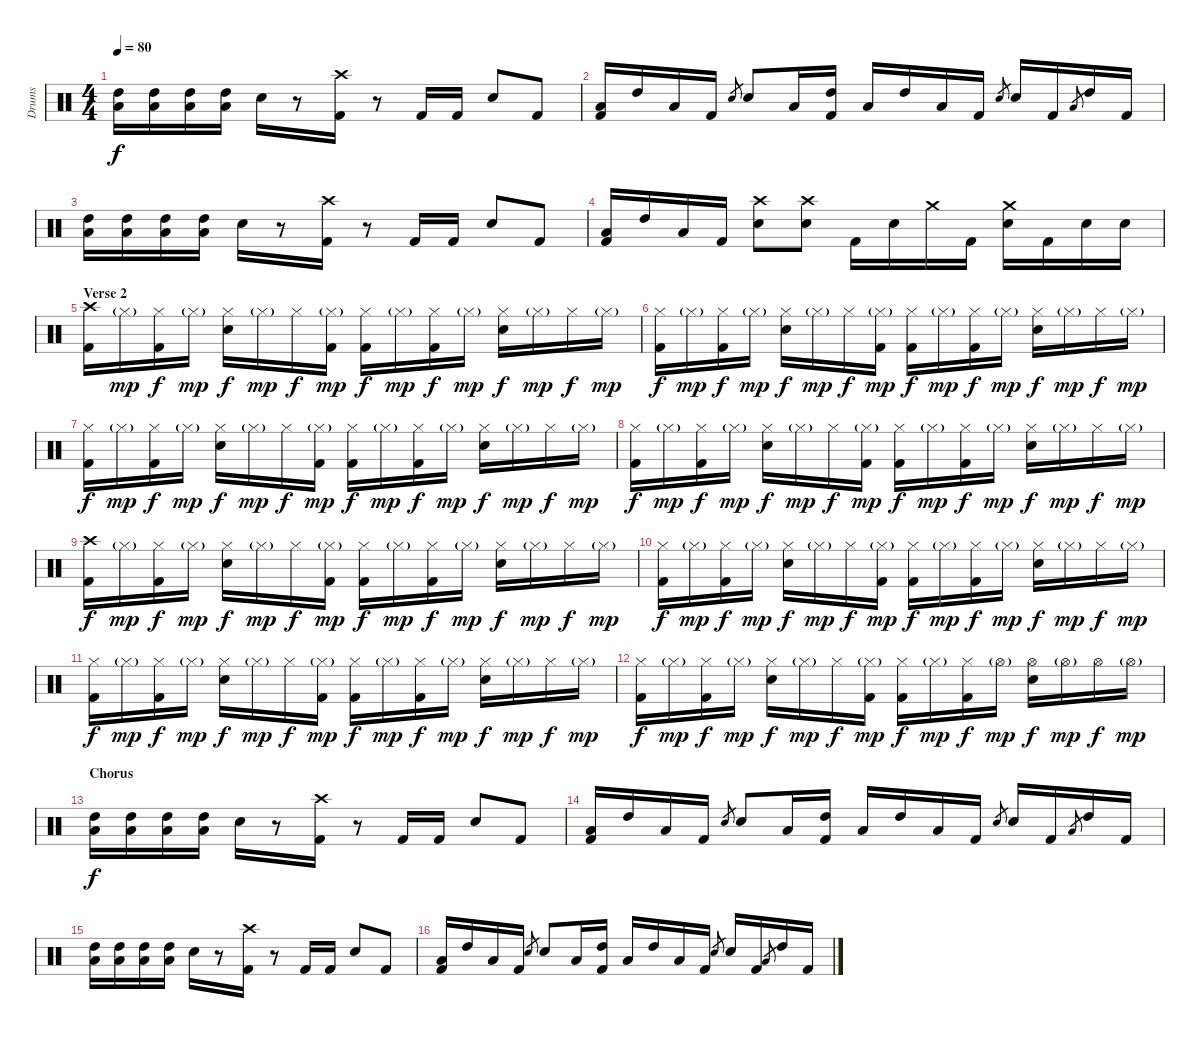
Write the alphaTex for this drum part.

\track ("Drums" "Drums") {instrument percussion}
\staff {score}
\articulation defaults
\ts (4 4)
\tempo 80
\clef neutral
\ks c
("High Tom (hit)" "Low Floor Tom (hit)").16{dy f} ("High Tom (hit)" "Low Floor Tom (hit)").16 ("High Tom (hit)" "Low Floor Tom (hit)").16 ("High Tom (hit)" "Low Floor Tom (hit)").16 "Snare (hit) 2".16 r.8 ("Crash high (hit)" "Kick (hit) 2").16 r.8 "Kick (hit) 2".16 "Kick (hit) 2".16 "Snare (hit) 2".8 "Kick (hit) 2".8 |
("Low Floor Tom (hit)" "Kick (hit) 2").16 "High Tom (hit)".16 "Low Floor Tom (hit)".16 "Kick (hit) 2".16 "Snare (hit) 2".8{gr} "Snare (hit) 2".8 "Low Floor Tom (hit)".16 ("High Tom (hit)" "Kick (hit) 2").16 "Low Floor Tom (hit)".16 "High Tom (hit)".16 "Low Floor Tom (hit)".16 "Kick (hit) 2".16 "Snare (hit) 2".8{gr} "Snare (hit) 2".16 "Kick (hit) 2".16 "Low Floor Tom (hit)".8{gr} "High Tom (hit)".16 "Kick (hit) 2".16 |
("High Tom (hit)" "Low Floor Tom (hit)").16 ("High Tom (hit)" "Low Floor Tom (hit)").16 ("High Tom (hit)" "Low Floor Tom (hit)").16 ("High Tom (hit)" "Low Floor Tom (hit)").16 "Snare (hit) 2".16 r.8 ("Crash high (hit)" "Kick (hit) 2").16 r.8 "Kick (hit) 2".16 "Kick (hit) 2".16 "Snare (hit) 2".8 "Kick (hit) 2".8 |
("Low Floor Tom (hit)" "Kick (hit) 2").16 "High Tom (hit)".16 "Low Floor Tom (hit)".16 "Kick (hit) 2".16 ("Crash high (hit)" "Snare (hit) 2").8 ("Crash high (hit)" "Snare (hit) 2").8 "Kick (hit) 2".16 "Snare (hit) 2".16 "Crash medium (hit)".16 "Kick (hit) 2".16 ("Crash medium (hit)" "Snare (hit) 2").16 "Kick (hit) 2".16 "Snare (hit) 2".16 "Snare (hit) 2".16 |
\section ("" "Verse 2")
("Crash high (hit)" "Kick (hit) 2").16 "Hi-Hat (closed)"{g}.16{dy mp} ("Hi-Hat (closed)" "Kick (hit) 2").16{dy f} "Hi-Hat (closed)"{g}.16{dy mp} ("Hi-Hat (closed)" "Snare (hit) 2").16{dy f} "Hi-Hat (closed)"{g}.16{dy mp} "Hi-Hat (closed)".16{dy f} ("Hi-Hat (closed)"{g} "Kick (hit) 2").16{dy mp} ("Hi-Hat (closed)" "Kick (hit) 2").16{dy f} "Hi-Hat (closed)"{g}.16{dy mp} ("Hi-Hat (closed)" "Kick (hit) 2").16{dy f} "Hi-Hat (closed)"{g}.16{dy mp} ("Hi-Hat (closed)" "Snare (hit) 2").16{dy f} "Hi-Hat (closed)"{g}.16{dy mp} "Hi-Hat (closed)".16{dy f} "Hi-Hat (closed)"{g}.16{dy mp} |
("Hi-Hat (closed)" "Kick (hit) 2").16{dy f} "Hi-Hat (closed)"{g}.16{dy mp} ("Hi-Hat (closed)" "Kick (hit) 2").16{dy f} "Hi-Hat (closed)"{g}.16{dy mp} ("Hi-Hat (closed)" "Snare (hit) 2").16{dy f} "Hi-Hat (closed)"{g}.16{dy mp} "Hi-Hat (closed)".16{dy f} ("Hi-Hat (closed)"{g} "Kick (hit) 2").16{dy mp} ("Hi-Hat (closed)" "Kick (hit) 2").16{dy f} "Hi-Hat (closed)"{g}.16{dy mp} ("Hi-Hat (closed)" "Kick (hit) 2").16{dy f} "Hi-Hat (closed)"{g}.16{dy mp} ("Hi-Hat (closed)" "Snare (hit) 2").16{dy f} "Hi-Hat (closed)"{g}.16{dy mp} "Hi-Hat (closed)".16{dy f} "Hi-Hat (closed)"{g}.16{dy mp} |
("Hi-Hat (closed)" "Kick (hit) 2").16{dy f} "Hi-Hat (closed)"{g}.16{dy mp} ("Hi-Hat (closed)" "Kick (hit) 2").16{dy f} "Hi-Hat (closed)"{g}.16{dy mp} ("Hi-Hat (closed)" "Snare (hit) 2").16{dy f} "Hi-Hat (closed)"{g}.16{dy mp} "Hi-Hat (closed)".16{dy f} ("Hi-Hat (closed)"{g} "Kick (hit) 2").16{dy mp} ("Hi-Hat (closed)" "Kick (hit) 2").16{dy f} "Hi-Hat (closed)"{g}.16{dy mp} ("Hi-Hat (closed)" "Kick (hit) 2").16{dy f} "Hi-Hat (closed)"{g}.16{dy mp} ("Hi-Hat (closed)" "Snare (hit) 2").16{dy f} "Hi-Hat (closed)"{g}.16{dy mp} "Hi-Hat (closed)".16{dy f} "Hi-Hat (closed)"{g}.16{dy mp} |
("Hi-Hat (closed)" "Kick (hit) 2").16{dy f} "Hi-Hat (closed)"{g}.16{dy mp} ("Hi-Hat (closed)" "Kick (hit) 2").16{dy f} "Hi-Hat (closed)"{g}.16{dy mp} ("Hi-Hat (closed)" "Snare (hit) 2").16{dy f} "Hi-Hat (closed)"{g}.16{dy mp} "Hi-Hat (closed)".16{dy f} ("Hi-Hat (closed)"{g} "Kick (hit) 2").16{dy mp} ("Hi-Hat (closed)" "Kick (hit) 2").16{dy f} "Hi-Hat (closed)"{g}.16{dy mp} ("Hi-Hat (closed)" "Kick (hit) 2").16{dy f} "Hi-Hat (closed)"{g}.16{dy mp} ("Hi-Hat (closed)" "Snare (hit) 2").16{dy f} "Hi-Hat (closed)"{g}.16{dy mp} "Hi-Hat (closed)".16{dy f} "Hi-Hat (closed)"{g}.16{dy mp} |
("Crash high (hit)" "Kick (hit) 2").16{dy f} "Hi-Hat (closed)"{g}.16{dy mp} ("Hi-Hat (closed)" "Kick (hit) 2").16{dy f} "Hi-Hat (closed)"{g}.16{dy mp} ("Hi-Hat (closed)" "Snare (hit) 2").16{dy f} "Hi-Hat (closed)"{g}.16{dy mp} "Hi-Hat (closed)".16{dy f} ("Hi-Hat (closed)"{g} "Kick (hit) 2").16{dy mp} ("Hi-Hat (closed)" "Kick (hit) 2").16{dy f} "Hi-Hat (closed)"{g}.16{dy mp} ("Hi-Hat (closed)" "Kick (hit) 2").16{dy f} "Hi-Hat (closed)"{g}.16{dy mp} ("Hi-Hat (closed)" "Snare (hit) 2").16{dy f} "Hi-Hat (closed)"{g}.16{dy mp} "Hi-Hat (closed)".16{dy f} "Hi-Hat (closed)"{g}.16{dy mp} |
("Hi-Hat (closed)" "Kick (hit) 2").16{dy f} "Hi-Hat (closed)"{g}.16{dy mp} ("Hi-Hat (closed)" "Kick (hit) 2").16{dy f} "Hi-Hat (closed)"{g}.16{dy mp} ("Hi-Hat (closed)" "Snare (hit) 2").16{dy f} "Hi-Hat (closed)"{g}.16{dy mp} "Hi-Hat (closed)".16{dy f} ("Hi-Hat (closed)"{g} "Kick (hit) 2").16{dy mp} ("Hi-Hat (closed)" "Kick (hit) 2").16{dy f} "Hi-Hat (closed)"{g}.16{dy mp} ("Hi-Hat (closed)" "Kick (hit) 2").16{dy f} "Hi-Hat (closed)"{g}.16{dy mp} ("Hi-Hat (closed)" "Snare (hit) 2").16{dy f} "Hi-Hat (closed)"{g}.16{dy mp} "Hi-Hat (closed)".16{dy f} "Hi-Hat (closed)"{g}.16{dy mp} |
("Hi-Hat (closed)" "Kick (hit) 2").16{dy f} "Hi-Hat (closed)"{g}.16{dy mp} ("Hi-Hat (closed)" "Kick (hit) 2").16{dy f} "Hi-Hat (closed)"{g}.16{dy mp} ("Hi-Hat (closed)" "Snare (hit) 2").16{dy f} "Hi-Hat (closed)"{g}.16{dy mp} "Hi-Hat (closed)".16{dy f} ("Hi-Hat (closed)"{g} "Kick (hit) 2").16{dy mp} ("Hi-Hat (closed)" "Kick (hit) 2").16{dy f} "Hi-Hat (closed)"{g}.16{dy mp} ("Hi-Hat (closed)" "Kick (hit) 2").16{dy f} "Hi-Hat (closed)"{g}.16{dy mp} ("Hi-Hat (closed)" "Snare (hit) 2").16{dy f} "Hi-Hat (closed)"{g}.16{dy mp} "Hi-Hat (closed)".16{dy f} "Hi-Hat (closed)"{g}.16{dy mp} |
("Hi-Hat (closed)" "Kick (hit) 2").16{dy f} "Hi-Hat (closed)"{g}.16{dy mp} ("Hi-Hat (closed)" "Kick (hit) 2").16{dy f} "Hi-Hat (closed)"{g}.16{dy mp} ("Hi-Hat (closed)" "Snare (hit) 2").16{dy f} "Hi-Hat (closed)"{g}.16{dy mp} "Hi-Hat (closed)".16{dy f} ("Hi-Hat (closed)"{g} "Kick (hit) 2").16{dy mp} ("Hi-Hat (closed)" "Kick (hit) 2").16{dy f} "Hi-Hat (closed)"{g}.16{dy mp} ("Hi-Hat (closed)" "Kick (hit) 2").16{dy f} "Hi-Hat (open)"{g}.16{dy mp} ("Hi-Hat (open)" "Snare (hit) 2").16{dy f} "Hi-Hat (open)"{g}.16{dy mp} "Hi-Hat (open)".16{dy f} "Hi-Hat (open)"{g}.16{dy mp} |
\section ("" "Chorus")
("High Tom (hit)" "Low Floor Tom (hit)").16{dy f} ("High Tom (hit)" "Low Floor Tom (hit)").16 ("High Tom (hit)" "Low Floor Tom (hit)").16 ("High Tom (hit)" "Low Floor Tom (hit)").16 "Snare (hit) 2".16 r.8 ("Crash high (hit)" "Kick (hit) 2").16 r.8 "Kick (hit) 2".16 "Kick (hit) 2".16 "Snare (hit) 2".8 "Kick (hit) 2".8 |
("Low Floor Tom (hit)" "Kick (hit) 2").16 "High Tom (hit)".16 "Low Floor Tom (hit)".16 "Kick (hit) 2".16 "Snare (hit) 2".8{gr} "Snare (hit) 2".8 "Low Floor Tom (hit)".16 ("High Tom (hit)" "Kick (hit) 2").16 "Low Floor Tom (hit)".16 "High Tom (hit)".16 "Low Floor Tom (hit)".16 "Kick (hit) 2".16 "Snare (hit) 2".8{gr} "Snare (hit) 2".16 "Kick (hit) 2".16 "Low Floor Tom (hit)".8{gr} "High Tom (hit)".16 "Kick (hit) 2".16 |
("High Tom (hit)" "Low Floor Tom (hit)").16 ("High Tom (hit)" "Low Floor Tom (hit)").16 ("High Tom (hit)" "Low Floor Tom (hit)").16 ("High Tom (hit)" "Low Floor Tom (hit)").16 "Snare (hit) 2".16 r.8 ("Crash high (hit)" "Kick (hit) 2").16 r.8 "Kick (hit) 2".16 "Kick (hit) 2".16 "Snare (hit) 2".8 "Kick (hit) 2".8 |
("Low Floor Tom (hit)" "Kick (hit) 2").16 "High Tom (hit)".16 "Low Floor Tom (hit)".16 "Kick (hit) 2".16 "Snare (hit) 2".8{gr} "Snare (hit) 2".8 "Low Floor Tom (hit)".16 ("High Tom (hit)" "Kick (hit) 2").16 "Low Floor Tom (hit)".16 "High Tom (hit)".16 "Low Floor Tom (hit)".16 "Kick (hit) 2".16 "Snare (hit) 2".8{gr} "Snare (hit) 2".16 "Kick (hit) 2".16 "Low Floor Tom (hit)".8{gr} "High Tom (hit)".16 "Kick (hit) 2".16
